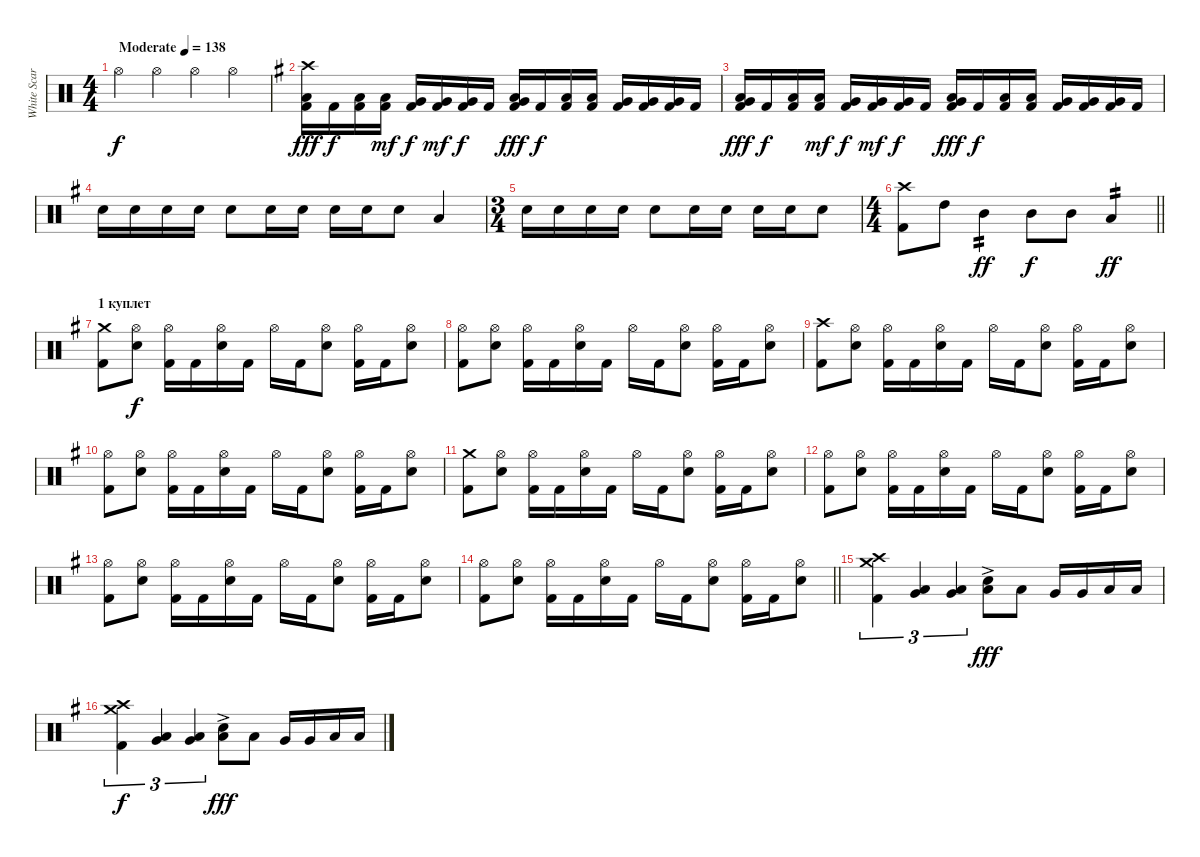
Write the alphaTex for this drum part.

\track ("White Scar" "White Scar") {instrument percussion}
\staff {score}
\articulation defaults
\ts (4 4)
\tempo (138 "Moderate")
\clef neutral
\ks c "Hi-Hat (open)".4{dy f} "Hi-Hat (open)".4 "Hi-Hat (open)".4 "Hi-Hat (open)".4
|
\ks eminor
("Crash high (hit)" "Low Tom (hit)" "Kick (hit) 2").16{dy fff} "Kick (hit) 2".16{dy f} ("Low Tom (hit)" "Kick (hit) 2").16 ("Low Tom (hit)" "Kick (hit) 2").16{dy mf} ("Very Low Tom (hit)" "Kick (hit) 2").16{dy f} ("Very Low Tom (hit)" "Kick (hit) 2").16{dy mf} ("Very Low Tom (hit)" "Kick (hit) 2").16{dy f} "Kick (hit) 2".16 ("Low Tom (hit)" "Very Low Tom (hit)" "Kick (hit) 2").16{dy fff} "Kick (hit) 2".16{dy f} ("Low Tom (hit)" "Kick (hit) 2").16 ("Low Tom (hit)" "Kick (hit) 2").16 ("Very Low Tom (hit)" "Kick (hit) 2").16 ("Very Low Tom (hit)" "Kick (hit) 2").16 ("Very Low Tom (hit)" "Kick (hit) 2").16 "Kick (hit) 2".16 |
("Low Tom (hit)" "Very Low Tom (hit)" "Kick (hit) 2").16{dy fff} "Kick (hit) 2".16{dy f} ("Low Tom (hit)" "Kick (hit) 2").16 ("Low Tom (hit)" "Kick (hit) 2").16{dy mf} ("Very Low Tom (hit)" "Kick (hit) 2").16{dy f} ("Very Low Tom (hit)" "Kick (hit) 2").16{dy mf} ("Very Low Tom (hit)" "Kick (hit) 2").16{dy f} "Kick (hit) 2".16 ("Low Tom (hit)" "Very Low Tom (hit)" "Kick (hit) 2").16{dy fff} "Kick (hit) 2".16{dy f} ("Low Tom (hit)" "Kick (hit) 2").16 ("Low Tom (hit)" "Kick (hit) 2").16 ("Very Low Tom (hit)" "Kick (hit) 2").16 ("Very Low Tom (hit)" "Kick (hit) 2").16 ("Very Low Tom (hit)" "Kick (hit) 2").16 "Kick (hit) 2".16 |
"Snare (hit) 2".16 "Snare (hit) 2".16 "Snare (hit) 2".16 "Snare (hit) 2".16 "Snare (hit) 2".8 "Snare (hit) 2".16 "Snare (hit) 2".16 "Snare (hit) 2".16 "Snare (hit) 2".16 "Snare (hit) 2".8 "Low Tom (hit)".4 |
\ts (3 4)
"Snare (hit) 2".16 "Snare (hit) 2".16 "Snare (hit) 2".16 "Snare (hit) 2".16 "Snare (hit) 2".8 "Snare (hit) 2".16 "Snare (hit) 2".16 "Snare (hit) 2".16 "Snare (hit) 2".16 "Snare (hit) 2".8 |
\ts (4 4)
\barLineRight lightlight
("Crash high (hit)" "Kick (hit) 2").8 "High Tom (hit)".8 "Mid Tom (hit)".4{tp 2 dy ff} "Mid Tom (hit)".8{dy f} "Mid Tom (hit)".8 "Low Tom (hit)".4{tp 2 dy ff} |
\section ("" "1 куплет")
("Crash medium (hit)" "Kick (hit) 2").8 ("Hi-Hat (open)" "Snare (hit) 2").8{dy f} ("Hi-Hat (open)" "Kick (hit) 2").16 "Kick (hit) 2".16 ("Hi-Hat (open)" "Snare (hit) 2").16 "Kick (hit) 2".16 "Hi-Hat (open)".16 "Kick (hit) 2".16 ("Hi-Hat (open)" "Snare (hit) 2").8 ("Hi-Hat (open)" "Kick (hit) 2").16 "Kick (hit) 2".16 ("Hi-Hat (open)" "Snare (hit) 2").8 |
("Hi-Hat (open)" "Kick (hit) 2").8 ("Hi-Hat (open)" "Snare (hit) 2").8 ("Hi-Hat (open)" "Kick (hit) 2").16 "Kick (hit) 2".16 ("Hi-Hat (open)" "Snare (hit) 2").16 "Kick (hit) 2".16 "Hi-Hat (open)".16 "Kick (hit) 2".16 ("Hi-Hat (open)" "Snare (hit) 2").8 ("Hi-Hat (open)" "Kick (hit) 2").16 "Kick (hit) 2".16 ("Hi-Hat (open)" "Snare (hit) 2").8 |
("Crash high (hit)" "Kick (hit) 2").8 ("Hi-Hat (open)" "Snare (hit) 2").8 ("Hi-Hat (open)" "Kick (hit) 2").16 "Kick (hit) 2".16 ("Hi-Hat (open)" "Snare (hit) 2").16 "Kick (hit) 2".16 "Hi-Hat (open)".16 "Kick (hit) 2".16 ("Hi-Hat (open)" "Snare (hit) 2").8 ("Hi-Hat (open)" "Kick (hit) 2").16 "Kick (hit) 2".16 ("Hi-Hat (open)" "Snare (hit) 2").8 |
("Hi-Hat (open)" "Kick (hit) 2").8 ("Hi-Hat (open)" "Snare (hit) 2").8 ("Hi-Hat (open)" "Kick (hit) 2").16 "Kick (hit) 2".16 ("Hi-Hat (open)" "Snare (hit) 2").16 "Kick (hit) 2".16 "Hi-Hat (open)".16 "Kick (hit) 2".16 ("Hi-Hat (open)" "Snare (hit) 2").8 ("Hi-Hat (open)" "Kick (hit) 2").16 "Kick (hit) 2".16 ("Hi-Hat (open)" "Snare (hit) 2").8 |
("Crash medium (hit)" "Kick (hit) 2").8 ("Hi-Hat (open)" "Snare (hit) 2").8 ("Hi-Hat (open)" "Kick (hit) 2").16 "Kick (hit) 2".16 ("Hi-Hat (open)" "Snare (hit) 2").16 "Kick (hit) 2".16 "Hi-Hat (open)".16 "Kick (hit) 2".16 ("Hi-Hat (open)" "Snare (hit) 2").8 ("Hi-Hat (open)" "Kick (hit) 2").16 "Kick (hit) 2".16 ("Hi-Hat (open)" "Snare (hit) 2").8 |
("Hi-Hat (open)" "Kick (hit) 2").8 ("Hi-Hat (open)" "Snare (hit) 2").8 ("Hi-Hat (open)" "Kick (hit) 2").16 "Kick (hit) 2".16 ("Hi-Hat (open)" "Snare (hit) 2").16 "Kick (hit) 2".16 "Hi-Hat (open)".16 "Kick (hit) 2".16 ("Hi-Hat (open)" "Snare (hit) 2").8 ("Hi-Hat (open)" "Kick (hit) 2").16 "Kick (hit) 2".16 ("Hi-Hat (open)" "Snare (hit) 2").8 |
("Hi-Hat (open)" "Kick (hit) 2").8 ("Hi-Hat (open)" "Snare (hit) 2").8 ("Hi-Hat (open)" "Kick (hit) 2").16 "Kick (hit) 2".16 ("Hi-Hat (open)" "Snare (hit) 2").16 "Kick (hit) 2".16 "Hi-Hat (open)".16 "Kick (hit) 2".16 ("Hi-Hat (open)" "Snare (hit) 2").8 ("Hi-Hat (open)" "Kick (hit) 2").16 "Kick (hit) 2".16 ("Hi-Hat (open)" "Snare (hit) 2").8 |
\barLineRight lightlight
("Hi-Hat (open)" "Kick (hit) 2").8 ("Hi-Hat (open)" "Snare (hit) 2").8 ("Hi-Hat (open)" "Kick (hit) 2").16 "Kick (hit) 2".16 ("Hi-Hat (open)" "Snare (hit) 2").16 "Kick (hit) 2".16 "Hi-Hat (open)".16 "Kick (hit) 2".16 ("Hi-Hat (open)" "Snare (hit) 2").8 ("Hi-Hat (open)" "Kick (hit) 2").16 "Kick (hit) 2".16 ("Hi-Hat (open)" "Snare (hit) 2").8 |
("Crash high (hit)" "Crash medium (hit)" "Kick (hit) 2").4{tu (3 2)} ("Low Tom (hit)" "Very Low Tom (hit)").4{tu (3 2)} ("Very Low Tom (hit)" "Low Floor Tom (hit)").4{tu (3 2)} ("Snare (hit) 2"{ac} "Low Floor Tom (hit)").8{dy fff} "Low Tom (hit)".8 "Very Low Tom (hit)".16 "Very Low Tom (hit)".16 "Low Floor Tom (hit)".16 "Low Floor Tom (hit)".16 |
("Crash high (hit)" "Crash medium (hit)" "Kick (hit) 2").4{tu (3 2) dy f} ("Low Tom (hit)" "Very Low Tom (hit)").4{tu (3 2)} ("Very Low Tom (hit)" "Low Floor Tom (hit)").4{tu (3 2)} ("Snare (hit) 2"{ac} "Low Floor Tom (hit)").8{dy fff} "Low Tom (hit)".8 "Very Low Tom (hit)".16 "Very Low Tom (hit)".16 "Low Floor Tom (hit)".16 "Low Floor Tom (hit)".16
